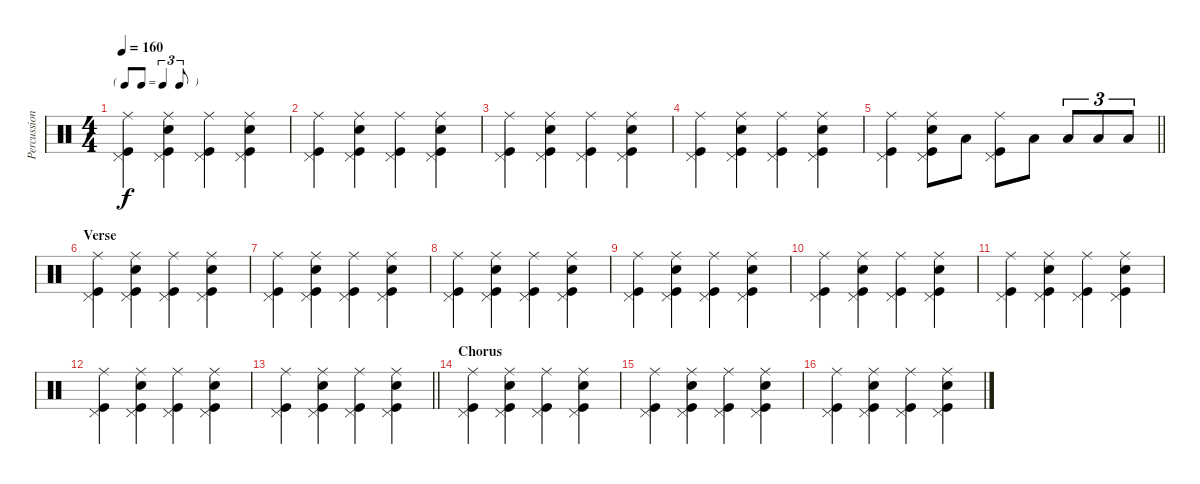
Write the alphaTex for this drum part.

\track ("Percussion" "Percussion") {instrument percussion}
\staff {score}
\articulation defaults
\ts (4 4)
\tf triplet8th
\tempo 160
\clef neutral
\ks c
("Ride (middle)" "Pedal Hi-Hat (hit)" "Kick (hit)").4{dy f} ("Ride (middle)" "Pedal Hi-Hat (hit)" "Kick (hit)" "Snare (hit) 2").4 ("Ride (middle)" "Pedal Hi-Hat (hit)" "Kick (hit)").4 ("Ride (middle)" "Pedal Hi-Hat (hit)" "Kick (hit)" "Snare (hit) 2").4 |
("Ride (middle)" "Pedal Hi-Hat (hit)" "Kick (hit)").4 ("Ride (middle)" "Pedal Hi-Hat (hit)" "Kick (hit)" "Snare (hit) 2").4 ("Ride (middle)" "Pedal Hi-Hat (hit)" "Kick (hit)").4 ("Ride (middle)" "Pedal Hi-Hat (hit)" "Kick (hit)" "Snare (hit) 2").4 |
("Ride (middle)" "Pedal Hi-Hat (hit)" "Kick (hit)").4 ("Ride (middle)" "Pedal Hi-Hat (hit)" "Kick (hit)" "Snare (hit) 2").4 ("Ride (middle)" "Pedal Hi-Hat (hit)" "Kick (hit)").4 ("Ride (middle)" "Pedal Hi-Hat (hit)" "Kick (hit)" "Snare (hit) 2").4 |
("Ride (middle)" "Pedal Hi-Hat (hit)" "Kick (hit)").4 ("Ride (middle)" "Pedal Hi-Hat (hit)" "Kick (hit)" "Snare (hit) 2").4 ("Ride (middle)" "Pedal Hi-Hat (hit)" "Kick (hit)").4 ("Ride (middle)" "Pedal Hi-Hat (hit)" "Kick (hit)" "Snare (hit) 2").4 |
\barLineRight lightlight
("Ride (middle)" "Pedal Hi-Hat (hit)" "Kick (hit)").4 ("Ride (middle)" "Pedal Hi-Hat (hit)" "Kick (hit)" "Snare (hit) 2").8 "Low Floor Tom (hit)".8 ("Ride (middle)" "Pedal Hi-Hat (hit)" "Kick (hit)").8 "Low Floor Tom (hit)".8 "Low Floor Tom (hit)".8{tu (3 2)} "Low Floor Tom (hit)".8{tu (3 2)} "Low Floor Tom (hit)".8{tu (3 2)} |
\section ("" "Verse")
("Ride (middle)" "Pedal Hi-Hat (hit)" "Kick (hit)").4 ("Ride (middle)" "Pedal Hi-Hat (hit)" "Kick (hit)" "Snare (hit) 2").4 ("Ride (middle)" "Pedal Hi-Hat (hit)" "Kick (hit)").4 ("Ride (middle)" "Pedal Hi-Hat (hit)" "Kick (hit)" "Snare (hit) 2").4 |
("Ride (middle)" "Pedal Hi-Hat (hit)" "Kick (hit)").4 ("Ride (middle)" "Pedal Hi-Hat (hit)" "Kick (hit)" "Snare (hit) 2").4 ("Ride (middle)" "Pedal Hi-Hat (hit)" "Kick (hit)").4 ("Ride (middle)" "Pedal Hi-Hat (hit)" "Kick (hit)" "Snare (hit) 2").4 |
("Ride (middle)" "Pedal Hi-Hat (hit)" "Kick (hit)").4 ("Ride (middle)" "Pedal Hi-Hat (hit)" "Kick (hit)" "Snare (hit) 2").4 ("Ride (middle)" "Pedal Hi-Hat (hit)" "Kick (hit)").4 ("Ride (middle)" "Pedal Hi-Hat (hit)" "Kick (hit)" "Snare (hit) 2").4 |
("Ride (middle)" "Pedal Hi-Hat (hit)" "Kick (hit)").4 ("Ride (middle)" "Pedal Hi-Hat (hit)" "Kick (hit)" "Snare (hit) 2").4 ("Ride (middle)" "Pedal Hi-Hat (hit)" "Kick (hit)").4 ("Ride (middle)" "Pedal Hi-Hat (hit)" "Kick (hit)" "Snare (hit) 2").4 |
("Ride (middle)" "Pedal Hi-Hat (hit)" "Kick (hit)").4 ("Ride (middle)" "Pedal Hi-Hat (hit)" "Kick (hit)" "Snare (hit) 2").4 ("Ride (middle)" "Pedal Hi-Hat (hit)" "Kick (hit)").4 ("Ride (middle)" "Pedal Hi-Hat (hit)" "Kick (hit)" "Snare (hit) 2").4 |
("Ride (middle)" "Pedal Hi-Hat (hit)" "Kick (hit)").4 ("Ride (middle)" "Pedal Hi-Hat (hit)" "Kick (hit)" "Snare (hit) 2").4 ("Ride (middle)" "Pedal Hi-Hat (hit)" "Kick (hit)").4 ("Ride (middle)" "Pedal Hi-Hat (hit)" "Kick (hit)" "Snare (hit) 2").4 |
("Ride (middle)" "Pedal Hi-Hat (hit)" "Kick (hit)").4 ("Ride (middle)" "Pedal Hi-Hat (hit)" "Kick (hit)" "Snare (hit) 2").4 ("Ride (middle)" "Pedal Hi-Hat (hit)" "Kick (hit)").4 ("Ride (middle)" "Pedal Hi-Hat (hit)" "Kick (hit)" "Snare (hit) 2").4 |
\barLineRight lightlight
("Ride (middle)" "Pedal Hi-Hat (hit)" "Kick (hit)").4 ("Ride (middle)" "Pedal Hi-Hat (hit)" "Kick (hit)" "Snare (hit) 2").4 ("Ride (middle)" "Pedal Hi-Hat (hit)" "Kick (hit)").4 ("Ride (middle)" "Pedal Hi-Hat (hit)" "Kick (hit)" "Snare (hit) 2").4 |
\section ("" "Chorus")
("Ride (middle)" "Pedal Hi-Hat (hit)" "Kick (hit)").4 ("Ride (middle)" "Pedal Hi-Hat (hit)" "Kick (hit)" "Snare (hit) 2").4 ("Ride (middle)" "Pedal Hi-Hat (hit)" "Kick (hit)").4 ("Ride (middle)" "Pedal Hi-Hat (hit)" "Kick (hit)" "Snare (hit) 2").4 |
("Ride (middle)" "Pedal Hi-Hat (hit)" "Kick (hit)").4 ("Ride (middle)" "Pedal Hi-Hat (hit)" "Kick (hit)" "Snare (hit) 2").4 ("Ride (middle)" "Pedal Hi-Hat (hit)" "Kick (hit)").4 ("Ride (middle)" "Pedal Hi-Hat (hit)" "Kick (hit)" "Snare (hit) 2").4 |
("Ride (middle)" "Pedal Hi-Hat (hit)" "Kick (hit)").4 ("Ride (middle)" "Pedal Hi-Hat (hit)" "Kick (hit)" "Snare (hit) 2").4 ("Ride (middle)" "Pedal Hi-Hat (hit)" "Kick (hit)").4 ("Ride (middle)" "Pedal Hi-Hat (hit)" "Kick (hit)" "Snare (hit) 2").4
